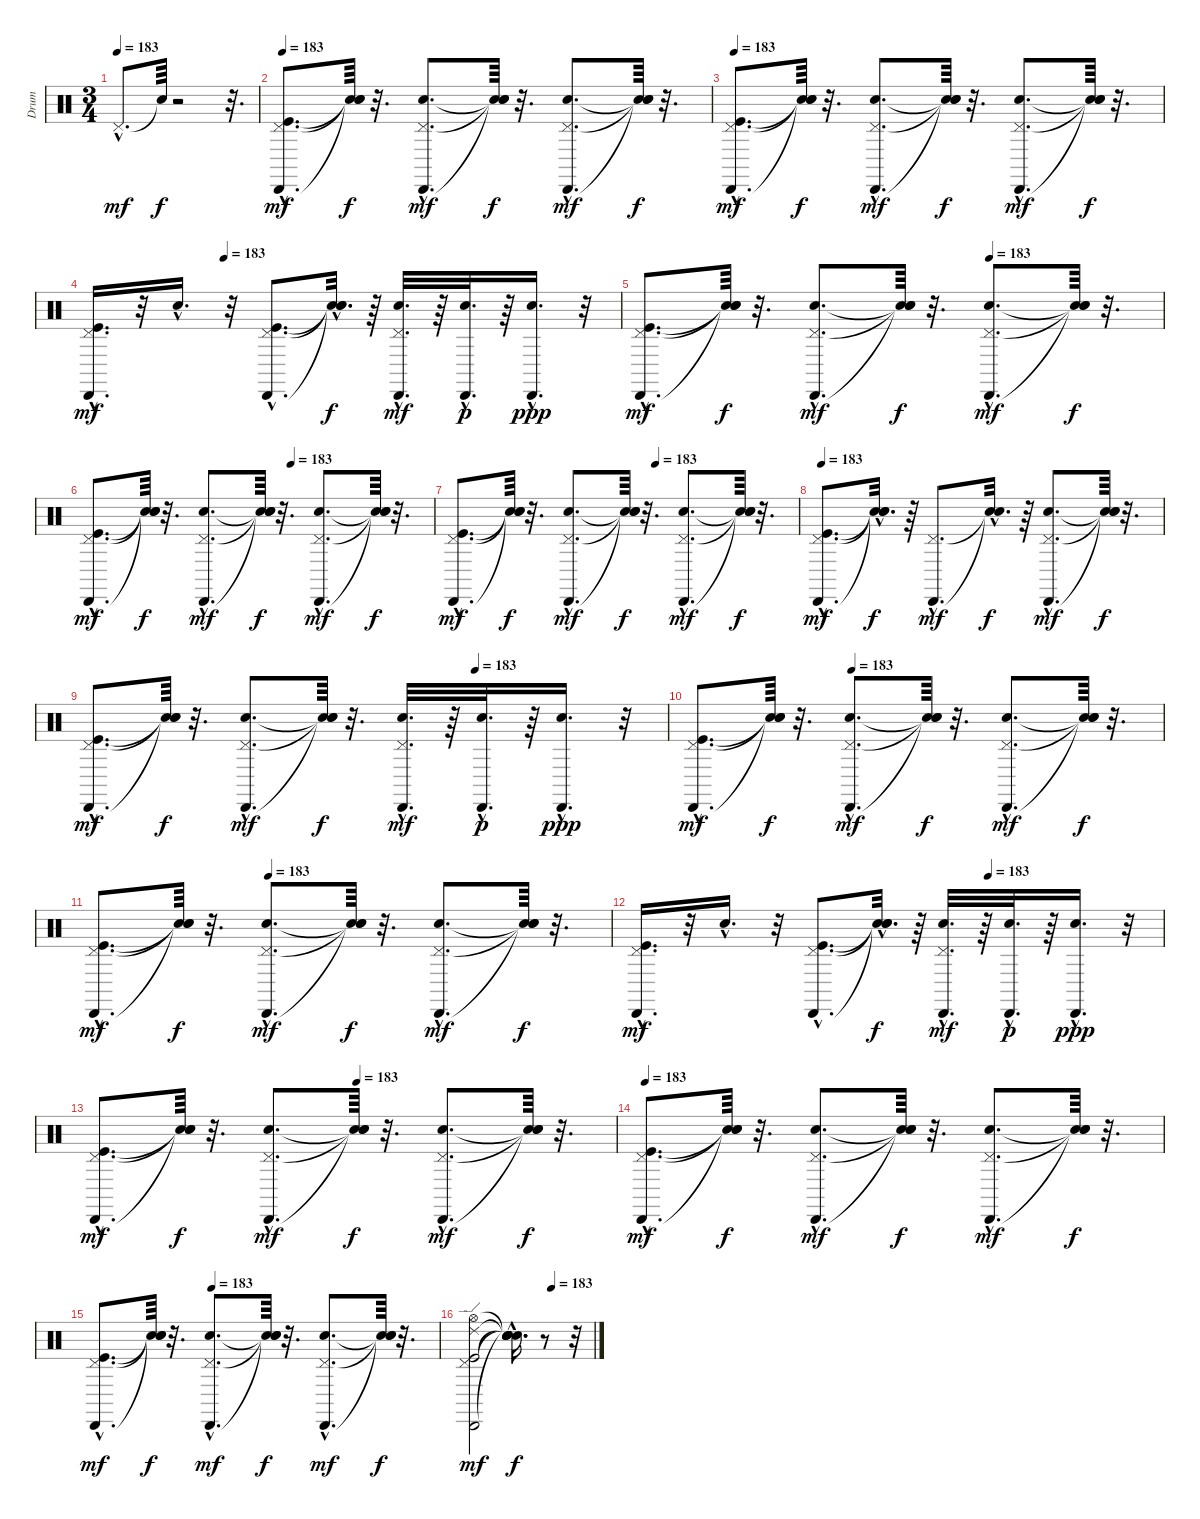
\track ("Drum" "Drum") {instrument percussion}
\staff {score}
\articulation defaults
\ts (3 4)
\tempo 183
\clef neutral
\ks c "Pedal Hi-Hat (hit)"{hac}.8{d dy mf} "Snare (hit)"{t}.64{dy f}
r.2 r.32{d} |
\tempo 183
("Kick (hit)"{hac} "Pedal Hi-Hat (hit)"{hac} "Cabasa (hit)"{hac}).8{d dy mf} ("Snare (hit)"{t} "Snare (hit)"{t} "Snare (hit)"{t}).64{dy f} r.32{d} ("Electric Snare (hit)"{hac} "Cabasa (hit)"{hac} "Pedal Hi-Hat (hit)"{hac}).8{d dy mf} ("Snare (hit)"{t} "Snare (hit)"{t} "Snare (hit)"{t}).64{dy f} r.32{d} ("Cabasa (hit)"{hac} "Electric Snare (hit)"{hac} "Pedal Hi-Hat (hit)"{hac}).8{d dy mf} ("Snare (hit)"{t} "Snare (hit)"{t} "Snare (hit)"{t}).64{dy f} r.32{d} |
\tempo 183
("Cabasa (hit)"{hac} "Pedal Hi-Hat (hit)"{hac} "Kick (hit)"{hac}).8{d dy mf} ("Snare (hit)"{t} "Snare (hit)"{t} "Snare (hit)"{t}).64{dy f} r.32{d} ("Cabasa (hit)"{hac} "Pedal Hi-Hat (hit)"{hac} "Electric Snare (hit)"{hac}).8{d dy mf} ("Snare (hit)"{t} "Snare (hit)"{t} "Snare (hit)"{t}).64{dy f} r.32{d} ("Cabasa (hit)"{hac} "Pedal Hi-Hat (hit)"{hac} "Electric Snare (hit)"{hac}).8{d dy mf} ("Snare (hit)"{t} "Snare (hit)"{t} "Snare (hit)"{t}).64{dy f} r.32{d} |
\tempo (183 0.25)
("Cabasa (hit)"{hac} "Pedal Hi-Hat (hit)"{hac} "Kick (hit)"{hac}).16{d dy mf} r.32 "Electric Snare (hit)"{hac}.16{d} r.32 ("Kick (hit)"{hac} "Cabasa (hit)"{hac} "Pedal Hi-Hat (hit)"{hac}).8{d} ("Snare (hit)"{hac t} "Snare (hit)"{hac t} "Snare (hit)"{hac t}).32{d dy f} r.64 ("Pedal Hi-Hat (hit)"{hac} "Cabasa (hit)"{hac} "Electric Snare (hit)"{hac}).32{d dy mf} r.64 ("Cabasa (hit)"{hac} "Electric Snare (hit)"{hac}).32{d dy p} r.64 ("Cabasa (hit)"{hac} "Electric Snare (hit)"{hac}).16{d dy ppp} r.32 |
\tempo (183 0.6666666666666666)
("Cabasa (hit)"{hac} "Pedal Hi-Hat (hit)"{hac} "Kick (hit)"{hac}).8{d dy mf} ("Snare (hit)"{t} "Snare (hit)"{t} "Snare (hit)"{t}).64{dy f} r.32{d} ("Cabasa (hit)"{hac} "Pedal Hi-Hat (hit)"{hac} "Electric Snare (hit)"{hac}).8{d dy mf} ("Snare (hit)"{t} "Snare (hit)"{t} "Snare (hit)"{t}).64{dy f} r.32{d} ("Cabasa (hit)"{hac} "Pedal Hi-Hat (hit)"{hac} "Electric Snare (hit)"{hac}).8{d dy mf} ("Snare (hit)"{t} "Snare (hit)"{t} "Snare (hit)"{t}).64{dy f} r.32{d} |
\tempo (183 0.5833333333333334)
("Kick (hit)"{hac} "Pedal Hi-Hat (hit)"{hac} "Cabasa (hit)"{hac}).8{d dy mf} ("Snare (hit)"{t} "Snare (hit)"{t} "Snare (hit)"{t}).64{dy f} r.32{d} ("Electric Snare (hit)"{hac} "Pedal Hi-Hat (hit)"{hac} "Cabasa (hit)"{hac}).8{d dy mf} ("Snare (hit)"{t} "Snare (hit)"{t} "Snare (hit)"{t}).64{dy f} r.32{d} ("Electric Snare (hit)"{hac} "Pedal Hi-Hat (hit)"{hac} "Cabasa (hit)"{hac}).8{d dy mf} ("Snare (hit)"{t} "Snare (hit)"{t} "Snare (hit)"{t}).64{dy f} r.32{d} |
\tempo (183 0.5833333333333334)
("Kick (hit)"{hac} "Pedal Hi-Hat (hit)"{hac} "Cabasa (hit)"{hac}).8{d dy mf} ("Snare (hit)"{t} "Snare (hit)"{t} "Snare (hit)"{t}).64{dy f} r.32{d} ("Electric Snare (hit)"{hac} "Pedal Hi-Hat (hit)"{hac} "Cabasa (hit)"{hac}).8{d dy mf} ("Snare (hit)"{t} "Snare (hit)"{t} "Snare (hit)"{t}).64{dy f} r.32{d} ("Electric Snare (hit)"{hac} "Pedal Hi-Hat (hit)"{hac} "Cabasa (hit)"{hac}).8{d dy mf} ("Snare (hit)"{t} "Snare (hit)"{t} "Snare (hit)"{t}).64{dy f} r.32{d} |
\tempo 183
("Pedal Hi-Hat (hit)"{hac} "Kick (hit)"{hac} "Cabasa (hit)"{hac}).8{d dy mf} ("Snare (hit)"{hac t} "Snare (hit)"{hac t} "Snare (hit)"{hac t}).32{d dy f} r.64 ("Cabasa (hit)"{hac} "Pedal Hi-Hat (hit)"{hac}).8{d dy mf} ("Snare (hit)"{hac t} "Snare (hit)"{hac t}).32{d dy f} r.64 ("Cabasa (hit)"{hac} "Electric Snare (hit)"{hac} "Pedal Hi-Hat (hit)"{hac}).8{d dy mf} ("Snare (hit)"{t} "Snare (hit)"{t} "Snare (hit)"{t}).64{dy f} r.32{d} |
\tempo (183 0.6666666666666666)
("Kick (hit)"{hac} "Pedal Hi-Hat (hit)"{hac} "Cabasa (hit)"{hac}).8{d dy mf} ("Snare (hit)"{t} "Snare (hit)"{t} "Snare (hit)"{t}).64{dy f} r.32{d} ("Electric Snare (hit)"{hac} "Pedal Hi-Hat (hit)"{hac} "Cabasa (hit)"{hac}).8{d dy mf} ("Snare (hit)"{t} "Snare (hit)"{t} "Snare (hit)"{t}).64{dy f} r.32{d} ("Electric Snare (hit)"{hac} "Cabasa (hit)"{hac} "Pedal Hi-Hat (hit)"{hac}).32{d dy mf} r.64 ("Electric Snare (hit)"{hac} "Cabasa (hit)"{hac}).32{d dy p} r.64 ("Electric Snare (hit)"{hac} "Cabasa (hit)"{hac}).16{d dy ppp} r.32 |
\tempo (183 0.3333333333333333)
("Pedal Hi-Hat (hit)"{hac} "Cabasa (hit)"{hac} "Kick (hit)"{hac}).8{d dy mf} ("Snare (hit)"{t} "Snare (hit)"{t} "Snare (hit)"{t}).64{dy f} r.32{d} ("Pedal Hi-Hat (hit)"{hac} "Cabasa (hit)"{hac} "Electric Snare (hit)"{hac}).8{d dy mf} ("Snare (hit)"{t} "Snare (hit)"{t} "Snare (hit)"{t}).64{dy f} r.32{d} ("Pedal Hi-Hat (hit)"{hac} "Cabasa (hit)"{hac} "Electric Snare (hit)"{hac}).8{d dy mf} ("Snare (hit)"{t} "Snare (hit)"{t} "Snare (hit)"{t}).64{dy f} r.32{d} |
\tempo (183 0.3333333333333333)
("Kick (hit)"{hac} "Pedal Hi-Hat (hit)"{hac} "Cabasa (hit)"{hac}).8{d dy mf} ("Snare (hit)"{t} "Snare (hit)"{t} "Snare (hit)"{t}).64{dy f} r.32{d} ("Electric Snare (hit)"{hac} "Pedal Hi-Hat (hit)"{hac} "Cabasa (hit)"{hac}).8{d dy mf} ("Snare (hit)"{t} "Snare (hit)"{t} "Snare (hit)"{t}).64{dy f} r.32{d} ("Electric Snare (hit)"{hac} "Pedal Hi-Hat (hit)"{hac} "Cabasa (hit)"{hac}).8{d dy mf} ("Snare (hit)"{t} "Snare (hit)"{t} "Snare (hit)"{t}).64{dy f} r.32{d} |
\tempo (183 0.6666666666666666)
("Kick (hit)"{hac} "Pedal Hi-Hat (hit)"{hac} "Cabasa (hit)"{hac}).16{d dy mf} r.32 "Electric Snare (hit)"{hac}.16{d} r.32 ("Pedal Hi-Hat (hit)"{hac} "Cabasa (hit)"{hac} "Kick (hit)"{hac}).8{d} ("Snare (hit)"{hac t} "Snare (hit)"{hac t} "Snare (hit)"{hac t}).32{d dy f} r.64 ("Electric Snare (hit)"{hac} "Cabasa (hit)"{hac} "Pedal Hi-Hat (hit)"{hac}).32{d dy mf} r.64 ("Electric Snare (hit)"{hac} "Cabasa (hit)"{hac}).32{d dy p} r.64 ("Electric Snare (hit)"{hac} "Cabasa (hit)"{hac}).16{d dy ppp} r.32 |
\tempo (183 0.5)
("Pedal Hi-Hat (hit)"{hac} "Kick (hit)"{hac} "Cabasa (hit)"{hac}).8{d dy mf} ("Snare (hit)"{t} "Snare (hit)"{t} "Snare (hit)"{t}).64{dy f} r.32{d} ("Electric Snare (hit)"{hac} "Cabasa (hit)"{hac} "Pedal Hi-Hat (hit)"{hac}).8{d dy mf} ("Snare (hit)"{t} "Snare (hit)"{t} "Snare (hit)"{t}).64{dy f} r.32{d} ("Electric Snare (hit)"{hac} "Pedal Hi-Hat (hit)"{hac} "Cabasa (hit)"{hac}).8{d dy mf} ("Snare (hit)"{t} "Snare (hit)"{t} "Snare (hit)"{t}).64{dy f} r.32{d} |
\tempo 183
("Kick (hit)"{hac} "Pedal Hi-Hat (hit)"{hac} "Cabasa (hit)"{hac}).8{d dy mf} ("Snare (hit)"{t} "Snare (hit)"{t} "Snare (hit)"{t}).64{dy f} r.32{d} ("Pedal Hi-Hat (hit)"{hac} "Cabasa (hit)"{hac} "Electric Snare (hit)"{hac}).8{d dy mf} ("Snare (hit)"{t} "Snare (hit)"{t} "Snare (hit)"{t}).64{dy f} r.32{d} ("Pedal Hi-Hat (hit)"{hac} "Cabasa (hit)"{hac} "Electric Snare (hit)"{hac}).8{d dy mf} ("Snare (hit)"{t} "Snare (hit)"{t} "Snare (hit)"{t}).64{dy f} r.32{d} |
\tempo (183 0.3333333333333333)
("Cabasa (hit)"{hac} "Kick (hit)"{hac} "Pedal Hi-Hat (hit)"{hac}).8{d dy mf} ("Snare (hit)"{t} "Snare (hit)"{t} "Snare (hit)"{t}).64{dy f} r.32{d} ("Cabasa (hit)"{hac} "Snare (hit) 2"{hac} "Pedal Hi-Hat (hit)"{hac}).8{d dy mf} ("Snare (hit)"{t} "Snare (hit)"{t} "Snare (hit)"{t}).64{dy f} r.32{d} ("Electric Snare (hit)"{hac} "Cabasa (hit)"{hac} "Pedal Hi-Hat (hit)"{hac}).8{d dy mf} ("Snare (hit)"{t} "Snare (hit)"{t} "Snare (hit)"{t}).64{dy f} r.32{d} |
\tempo (183 0.6666666666666666)
("Ride (edge) 2" "Hi-Hat (open)" "Cabasa (hit)" "Pedal Hi-Hat (hit)" "Kick (hit)").2{dy mf} ("Snare (hit)"{hac t} "Snare (hit)"{hac t} "Snare (hit)"{hac t} "Snare (hit)"{hac t} "Snare (hit)"{hac t}).16{d dy f} r.8 r.32
